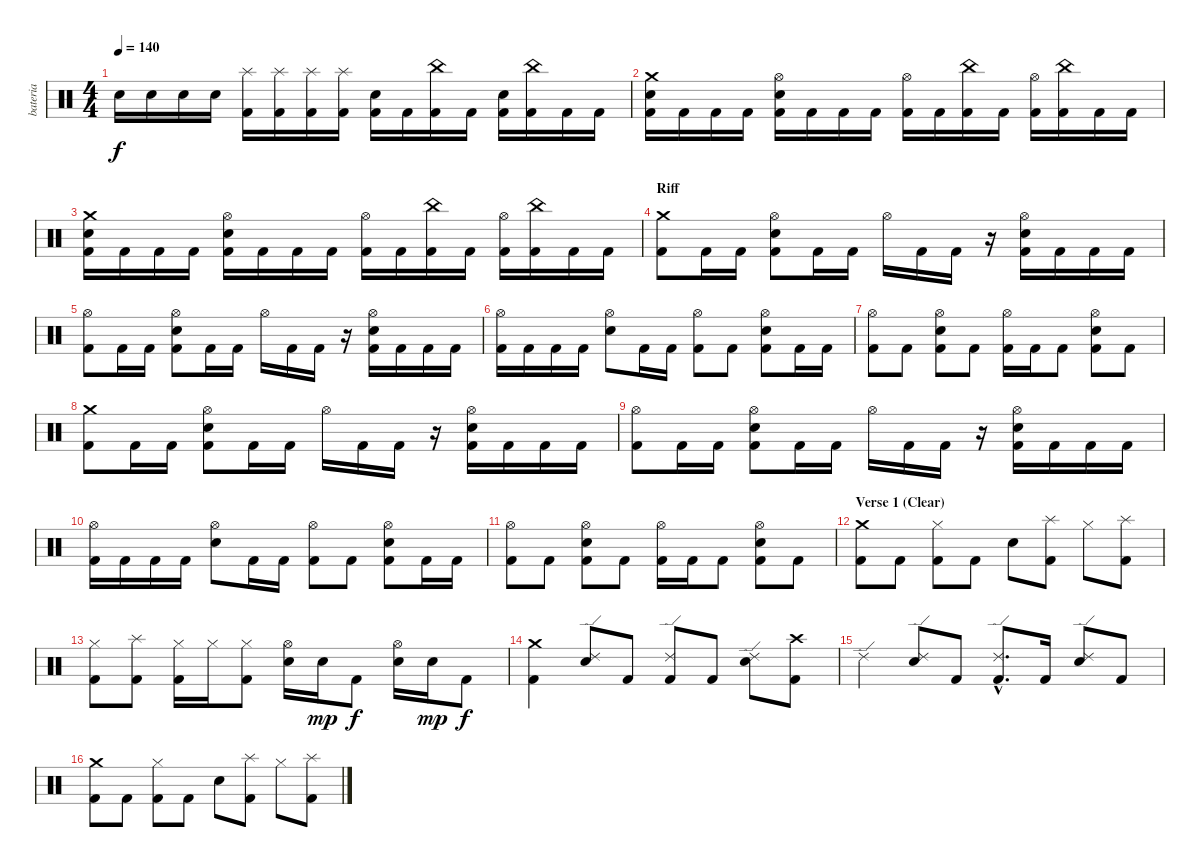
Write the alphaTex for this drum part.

\track ("bateria" "bateria") {instrument percussion}
\staff {score}
\articulation defaults
\ts (4 4)
\tempo 140
\clef neutral
\ks c "Electric Snare (hit)".16{dy f} "Electric Snare (hit)".16 "Electric Snare (hit)".16 "Electric Snare (hit)".16
("Splash (hit)" "Kick (hit) 2").16 ("Splash (hit)" "Kick (hit) 2").16 ("Splash (hit)" "Kick (hit) 2").16 ("Splash (hit)" "Kick (hit) 2").16 ("Electric Snare (hit)" "Kick (hit) 2").16 "Kick (hit) 2".16 ("China (hit)" "Kick (hit) 2").16 "Kick (hit) 2".16 ("Electric Snare (hit)" "Kick (hit) 2").16 ("China (hit)" "Kick (hit) 2").16 "Kick (hit) 2".16 "Kick (hit) 2".16 |
("Crash medium (hit)" "Electric Snare (hit)" "Kick (hit) 2").16 "Kick (hit) 2".16 "Kick (hit) 2".16 "Kick (hit) 2".16 ("Hi-Hat (open)" "Electric Snare (hit)" "Kick (hit) 2").16 "Kick (hit) 2".16 "Kick (hit) 2".16 "Kick (hit) 2".16 ("Hi-Hat (open)" "Kick (hit) 2").16 "Kick (hit) 2".16 ("China (hit)" "Kick (hit) 2").16 "Kick (hit) 2".16 ("Hi-Hat (open)" "Kick (hit) 2").16 ("China (hit)" "Kick (hit) 2").16 "Kick (hit) 2".16 "Kick (hit) 2".16 |
("Crash medium (hit)" "Electric Snare (hit)" "Kick (hit) 2").16 "Kick (hit) 2".16 "Kick (hit) 2".16 "Kick (hit) 2".16 ("Hi-Hat (open)" "Electric Snare (hit)" "Kick (hit) 2").16 "Kick (hit) 2".16 "Kick (hit) 2".16 "Kick (hit) 2".16 ("Hi-Hat (open)" "Kick (hit) 2").16 "Kick (hit) 2".16 ("China (hit)" "Kick (hit) 2").16 "Kick (hit) 2".16 ("Hi-Hat (open)" "Kick (hit) 2").16 ("China (hit)" "Kick (hit) 2").16 "Kick (hit) 2".16 "Kick (hit) 2".16 |
\section ("" "Riff")
("Crash medium (hit)" "Kick (hit) 2").8 "Kick (hit) 2".16 "Kick (hit) 2".16 ("Hi-Hat (open)" "Electric Snare (hit)" "Kick (hit) 2").8 "Kick (hit) 2".16 "Kick (hit) 2".16 "Hi-Hat (open)".16 "Kick (hit) 2".16 "Kick (hit) 2".16 r.16 ("Hi-Hat (open)" "Electric Snare (hit)" "Kick (hit) 2").16 "Kick (hit) 2".16 "Kick (hit) 2".16 "Kick (hit) 2".16 |
("Hi-Hat (open)" "Kick (hit) 2").8 "Kick (hit) 2".16 "Kick (hit) 2".16 ("Hi-Hat (open)" "Electric Snare (hit)" "Kick (hit) 2").8 "Kick (hit) 2".16 "Kick (hit) 2".16 "Hi-Hat (open)".16 "Kick (hit) 2".16 "Kick (hit) 2".16 r.16 ("Hi-Hat (open)" "Electric Snare (hit)" "Kick (hit) 2").16 "Kick (hit) 2".16 "Kick (hit) 2".16 "Kick (hit) 2".16 |
("Hi-Hat (open)" "Kick (hit) 2").16 "Kick (hit) 2".16 "Kick (hit) 2".16 "Kick (hit) 2".16 ("Hi-Hat (open)" "Electric Snare (hit)").8 "Kick (hit) 2".16 "Kick (hit) 2".16 ("Hi-Hat (open)" "Kick (hit) 2").8 "Kick (hit) 2".8 ("Hi-Hat (open)" "Electric Snare (hit)" "Kick (hit) 2").8 "Kick (hit) 2".16 "Kick (hit) 2".16 |
("Hi-Hat (open)" "Kick (hit) 2").8 "Kick (hit) 2".8 ("Hi-Hat (open)" "Electric Snare (hit)" "Kick (hit) 2").8 "Kick (hit) 2".8 ("Hi-Hat (open)" "Kick (hit) 2").16 "Kick (hit) 2".16 "Kick (hit) 2".8 ("Hi-Hat (open)" "Electric Snare (hit)" "Kick (hit) 2").8 "Kick (hit) 2".8 |
("Crash medium (hit)" "Kick (hit) 2").8 "Kick (hit) 2".16 "Kick (hit) 2".16 ("Hi-Hat (open)" "Electric Snare (hit)" "Kick (hit) 2").8 "Kick (hit) 2".16 "Kick (hit) 2".16 "Hi-Hat (open)".16 "Kick (hit) 2".16 "Kick (hit) 2".16 r.16 ("Hi-Hat (open)" "Electric Snare (hit)" "Kick (hit) 2").16 "Kick (hit) 2".16 "Kick (hit) 2".16 "Kick (hit) 2".16 |
("Hi-Hat (open)" "Kick (hit) 2").8 "Kick (hit) 2".16 "Kick (hit) 2".16 ("Hi-Hat (open)" "Electric Snare (hit)" "Kick (hit) 2").8 "Kick (hit) 2".16 "Kick (hit) 2".16 "Hi-Hat (open)".16 "Kick (hit) 2".16 "Kick (hit) 2".16 r.16 ("Hi-Hat (open)" "Electric Snare (hit)" "Kick (hit) 2").16 "Kick (hit) 2".16 "Kick (hit) 2".16 "Kick (hit) 2".16 |
("Hi-Hat (open)" "Kick (hit) 2").16 "Kick (hit) 2".16 "Kick (hit) 2".16 "Kick (hit) 2".16 ("Hi-Hat (open)" "Electric Snare (hit)").8 "Kick (hit) 2".16 "Kick (hit) 2".16 ("Hi-Hat (open)" "Kick (hit) 2").8 "Kick (hit) 2".8 ("Hi-Hat (open)" "Electric Snare (hit)" "Kick (hit) 2").8 "Kick (hit) 2".16 "Kick (hit) 2".16 |
("Hi-Hat (open)" "Kick (hit) 2").8 "Kick (hit) 2".8 ("Hi-Hat (open)" "Electric Snare (hit)" "Kick (hit) 2").8 "Kick (hit) 2".8 ("Hi-Hat (open)" "Kick (hit) 2").16 "Kick (hit) 2".16 "Kick (hit) 2".8 ("Hi-Hat (open)" "Electric Snare (hit)" "Kick (hit) 2").8 "Kick (hit) 2".8 |
\section ("" "Verse 1 (Clear)")
("Crash medium (hit)" "Kick (hit) 2").8 "Kick (hit) 2".8 ("Hi-Hat (closed)" "Kick (hit) 2").8 "Kick (hit) 2".8 "Electric Snare (hit)".8 ("Splash (hit)" "Kick (hit) 2").8 "Hi-Hat (closed)".8 ("Splash (hit)" "Kick (hit) 2").8 |
("Hi-Hat (closed)" "Kick (hit) 2").8 ("Splash (hit)" "Kick (hit) 2").8 ("Hi-Hat (closed)" "Kick (hit) 2").16 "Hi-Hat (closed)".16 ("Hi-Hat (closed)" "Kick (hit) 2").8 ("Hi-Hat (open)" "Electric Snare (hit)").16 "Electric Snare (hit)".16{dy mp} "Kick (hit) 2".8{dy f} ("Hi-Hat (open)" "Electric Snare (hit)").16 "Electric Snare (hit)".16{dy mp} "Kick (hit) 2".8{dy f} |
("Crash medium (hit)" "Kick (hit) 2").4 ("Ride (edge) 2" "Electric Snare (hit)").8 "Kick (hit) 2".8 ("Ride (edge) 2" "Kick (hit) 2").8 "Kick (hit) 2".8 ("Ride (edge) 2" "Electric Snare (hit)").8 ("Crash high (hit)" "Kick (hit) 2").8 |
"Ride (edge) 2".4 ("Ride (edge) 2" "Electric Snare (hit)").8 "Kick (hit) 2".8 ("Ride (edge) 2"{hac} "Kick (hit) 2"{hac}).8{d} "Kick (hit) 2".16 ("Ride (edge) 2" "Electric Snare (hit)").8 "Kick (hit) 2".8 |
("Crash medium (hit)" "Kick (hit) 2").8 "Kick (hit) 2".8 ("Hi-Hat (closed)" "Kick (hit) 2").8 "Kick (hit) 2".8 "Electric Snare (hit)".8 ("Splash (hit)" "Kick (hit) 2").8 "Hi-Hat (closed)".8 ("Splash (hit)" "Kick (hit) 2").8
